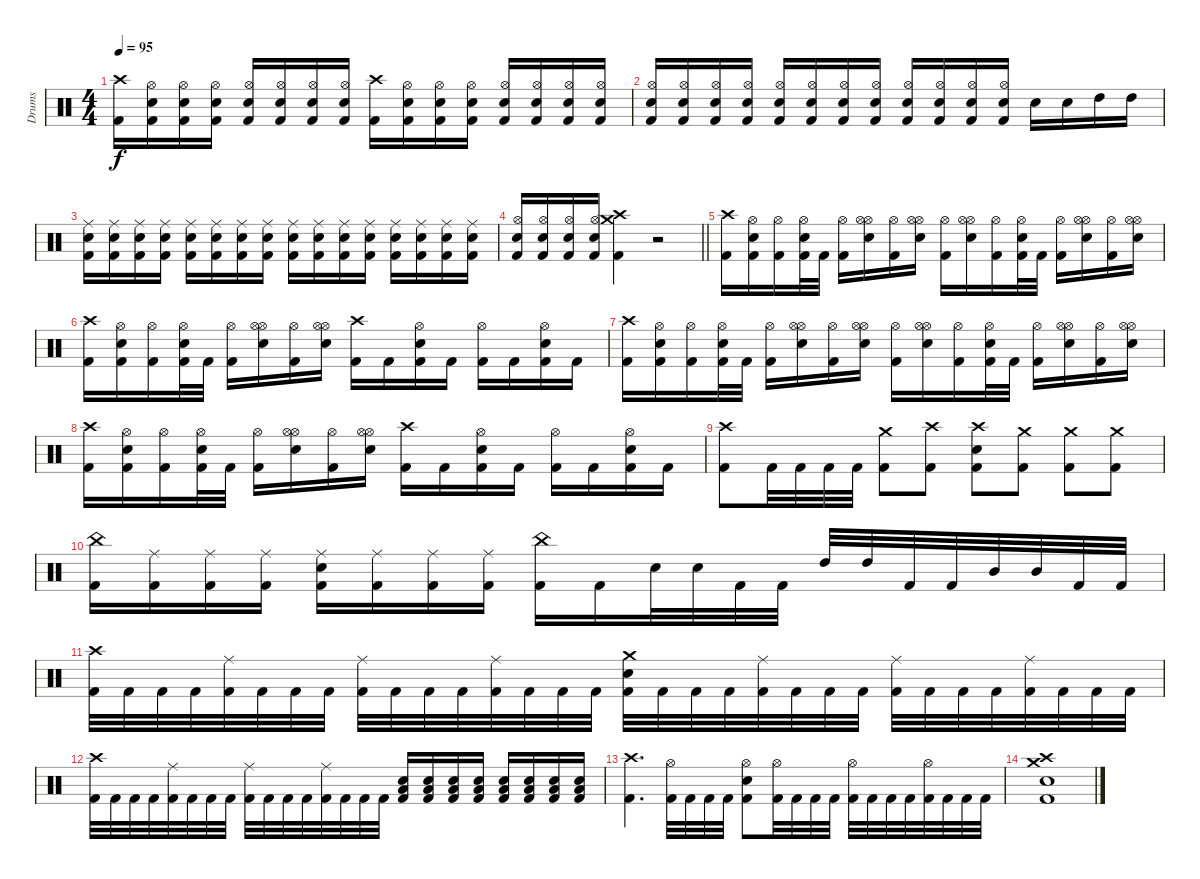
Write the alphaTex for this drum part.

\track ("Drums" "Drums") {instrument percussion}
\staff {score}
\articulation defaults
\ts (4 4)
\tempo 95
\clef neutral
\ks c
("Crash high (hit)" "Kick (hit) 2").16{dy f} ("Hi-Hat (open)" "Electric Snare (hit)" "Kick (hit) 2").16 ("Hi-Hat (open)" "Electric Snare (hit)" "Kick (hit) 2").16 ("Hi-Hat (open)" "Electric Snare (hit)" "Kick (hit) 2").16 ("Hi-Hat (open)" "Electric Snare (hit)" "Kick (hit) 2").16 ("Hi-Hat (open)" "Electric Snare (hit)" "Kick (hit) 2").16 ("Hi-Hat (open)" "Electric Snare (hit)" "Kick (hit) 2").16 ("Hi-Hat (open)" "Electric Snare (hit)" "Kick (hit) 2").16 ("Crash high (hit)" "Kick (hit) 2").16 ("Hi-Hat (open)" "Electric Snare (hit)" "Kick (hit) 2").16 ("Hi-Hat (open)" "Electric Snare (hit)" "Kick (hit) 2").16 ("Hi-Hat (open)" "Electric Snare (hit)" "Kick (hit) 2").16 ("Hi-Hat (open)" "Electric Snare (hit)" "Kick (hit) 2").16 ("Hi-Hat (open)" "Electric Snare (hit)" "Kick (hit) 2").16 ("Hi-Hat (open)" "Electric Snare (hit)" "Kick (hit) 2").16 ("Hi-Hat (open)" "Electric Snare (hit)" "Kick (hit) 2").16 |
("Hi-Hat (open)" "Electric Snare (hit)" "Kick (hit) 2").16 ("Hi-Hat (open)" "Electric Snare (hit)" "Kick (hit) 2").16 ("Hi-Hat (open)" "Electric Snare (hit)" "Kick (hit) 2").16 ("Hi-Hat (open)" "Electric Snare (hit)" "Kick (hit) 2").16 ("Hi-Hat (open)" "Electric Snare (hit)" "Kick (hit) 2").16 ("Hi-Hat (open)" "Electric Snare (hit)" "Kick (hit) 2").16 ("Hi-Hat (open)" "Electric Snare (hit)" "Kick (hit) 2").16 ("Hi-Hat (open)" "Electric Snare (hit)" "Kick (hit) 2").16 ("Hi-Hat (open)" "Electric Snare (hit)" "Kick (hit) 2").16 ("Hi-Hat (open)" "Electric Snare (hit)" "Kick (hit) 2").16 ("Hi-Hat (open)" "Electric Snare (hit)" "Kick (hit) 2").16 ("Hi-Hat (open)" "Electric Snare (hit)" "Kick (hit) 2").16 "Electric Snare (hit)".16 "Electric Snare (hit)".16 "High Tom (hit)".16 "High Tom (hit)".16 |
("Ride (middle)" "Electric Snare (hit)" "Kick (hit) 2").16 ("Ride (middle)" "Electric Snare (hit)" "Kick (hit) 2").16 ("Ride (middle)" "Electric Snare (hit)" "Kick (hit) 2").16 ("Ride (middle)" "Electric Snare (hit)" "Kick (hit) 2").16 ("Ride (middle)" "Electric Snare (hit)" "Kick (hit) 2").16 ("Ride (middle)" "Electric Snare (hit)" "Kick (hit) 2").16 ("Ride (middle)" "Electric Snare (hit)" "Kick (hit) 2").16 ("Ride (middle)" "Electric Snare (hit)" "Kick (hit) 2").16 ("Ride (middle)" "Electric Snare (hit)" "Kick (hit) 2").16 ("Ride (middle)" "Electric Snare (hit)" "Kick (hit) 2").16 ("Ride (middle)" "Electric Snare (hit)" "Kick (hit) 2").16 ("Ride (middle)" "Electric Snare (hit)" "Kick (hit) 2").16 ("Ride (middle)" "Electric Snare (hit)" "Kick (hit) 2").16 ("Ride (middle)" "Electric Snare (hit)" "Kick (hit) 2").16 ("Ride (middle)" "Electric Snare (hit)" "Kick (hit) 2").16 ("Ride (middle)" "Electric Snare (hit)" "Kick (hit) 2").16 |
\barLineRight lightlight
("Kick (hit) 2" "Electric Snare (hit)" "Hi-Hat (open)").16 ("Kick (hit) 2" "Electric Snare (hit)" "Hi-Hat (open)").16 ("Kick (hit) 2" "Electric Snare (hit)" "Hi-Hat (open)").16 ("Kick (hit) 2" "Electric Snare (hit)" "Hi-Hat (open)").16 ("Kick (hit) 2" "Crash medium (hit)" "Crash high (hit)").4 r.2 |
("Crash high (hit)" "Kick (hit) 2").16 ("Electric Snare (hit)" "Hi-Hat (open)" "Kick (hit) 2").16 ("Hi-Hat (open)" "Kick (hit) 2").16 ("Hi-Hat (open)" "Electric Snare (hit)" "Kick (hit) 2").32 "Kick (hit) 2".32 ("Hi-Hat (open)" "Kick (hit) 2").16 ("Electric Snare (hit)" "Hi-Hat (open)" "Hi-Hat (open)").16 ("Hi-Hat (open)" "Kick (hit) 2").16 ("Electric Snare (hit)" "Hi-Hat (open)" "Hi-Hat (open)").16 ("Hi-Hat (open)" "Kick (hit) 2").16 ("Electric Snare (hit)" "Hi-Hat (open)" "Hi-Hat (open)").16 ("Hi-Hat (open)" "Kick (hit) 2").16 ("Hi-Hat (open)" "Electric Snare (hit)" "Kick (hit) 2").32 "Kick (hit) 2".32 ("Hi-Hat (open)" "Kick (hit) 2").16 ("Electric Snare (hit)" "Hi-Hat (open)" "Hi-Hat (open)").16 ("Hi-Hat (open)" "Kick (hit) 2").16 ("Electric Snare (hit)" "Hi-Hat (open)" "Hi-Hat (open)").16 |
("Crash high (hit)" "Kick (hit) 2").16 ("Electric Snare (hit)" "Hi-Hat (open)" "Kick (hit) 2").16 ("Hi-Hat (open)" "Kick (hit) 2").16 ("Hi-Hat (open)" "Electric Snare (hit)" "Kick (hit) 2").32 "Kick (hit) 2".32 ("Hi-Hat (open)" "Kick (hit) 2").16 ("Electric Snare (hit)" "Hi-Hat (open)" "Hi-Hat (open)").16 ("Hi-Hat (open)" "Kick (hit) 2").16 ("Electric Snare (hit)" "Hi-Hat (open)" "Hi-Hat (open)").16 ("Crash high (hit)" "Kick (hit) 2").16 "Kick (hit) 2".16 ("Hi-Hat (open)" "Electric Snare (hit)" "Kick (hit) 2").16 "Kick (hit) 2".16 ("Hi-Hat (open)" "Kick (hit) 2").16 "Kick (hit) 2".16 ("Electric Snare (hit)" "Hi-Hat (open)" "Kick (hit) 2").16 "Kick (hit) 2".16 |
("Crash high (hit)" "Kick (hit) 2").16 ("Electric Snare (hit)" "Hi-Hat (open)" "Kick (hit) 2").16 ("Hi-Hat (open)" "Kick (hit) 2").16 ("Hi-Hat (open)" "Electric Snare (hit)" "Kick (hit) 2").32 "Kick (hit) 2".32 ("Hi-Hat (open)" "Kick (hit) 2").16 ("Electric Snare (hit)" "Hi-Hat (open)" "Hi-Hat (open)").16 ("Hi-Hat (open)" "Kick (hit) 2").16 ("Electric Snare (hit)" "Hi-Hat (open)" "Hi-Hat (open)").16 ("Hi-Hat (open)" "Kick (hit) 2").16 ("Electric Snare (hit)" "Hi-Hat (open)" "Hi-Hat (open)").16 ("Hi-Hat (open)" "Kick (hit) 2").16 ("Hi-Hat (open)" "Electric Snare (hit)" "Kick (hit) 2").32 "Kick (hit) 2".32 ("Hi-Hat (open)" "Kick (hit) 2").16 ("Electric Snare (hit)" "Hi-Hat (open)" "Hi-Hat (open)").16 ("Hi-Hat (open)" "Kick (hit) 2").16 ("Electric Snare (hit)" "Hi-Hat (open)" "Hi-Hat (open)").16 |
("Crash high (hit)" "Kick (hit) 2").16 ("Electric Snare (hit)" "Hi-Hat (open)" "Kick (hit) 2").16 ("Hi-Hat (open)" "Kick (hit) 2").16 ("Hi-Hat (open)" "Electric Snare (hit)" "Kick (hit) 2").32 "Kick (hit) 2".32 ("Hi-Hat (open)" "Kick (hit) 2").16 ("Electric Snare (hit)" "Hi-Hat (open)" "Hi-Hat (open)").16 ("Hi-Hat (open)" "Kick (hit) 2").16 ("Electric Snare (hit)" "Hi-Hat (open)" "Hi-Hat (open)").16 ("Crash high (hit)" "Kick (hit) 2").16 "Kick (hit) 2".16 ("Hi-Hat (open)" "Electric Snare (hit)" "Kick (hit) 2").16 "Kick (hit) 2".16 ("Hi-Hat (open)" "Kick (hit) 2").16 "Kick (hit) 2".16 ("Electric Snare (hit)" "Hi-Hat (open)" "Kick (hit) 2").16 "Kick (hit) 2".16 |
("Crash high (hit)" "Kick (hit) 2").8 "Kick (hit) 2".32 "Kick (hit) 2".32 "Kick (hit) 2".32 "Kick (hit) 2".32 ("Crash medium (hit)" "Kick (hit) 2").8 ("Crash high (hit)" "Kick (hit) 2").8 ("Crash high (hit)" "Electric Snare (hit)" "Kick (hit) 2").8 ("Crash medium (hit)" "Kick (hit) 2").8 ("Crash medium (hit)" "Kick (hit) 2").8 ("Crash medium (hit)" "Kick (hit) 2").8 |
("China (hit)" "Kick (hit) 2").16 ("Ride (middle)" "Kick (hit) 2").16 ("Ride (middle)" "Kick (hit) 2").16 ("Ride (middle)" "Kick (hit) 2").16 ("Ride (middle)" "Electric Snare (hit)" "Kick (hit) 2").16 ("Ride (middle)" "Kick (hit) 2").16 ("Ride (middle)" "Kick (hit) 2").16 ("Ride (middle)" "Kick (hit) 2").16 ("China (hit)" "Kick (hit) 2").16 "Kick (hit) 2".16 "Electric Snare (hit)".32 "Electric Snare (hit)".32 "Kick (hit) 2".32 "Kick (hit) 2".32 "High Tom (hit)".32 "High Tom (hit)".32 "Kick (hit) 2".32 "Kick (hit) 2".32 "Mid Tom (hit)".32 "Mid Tom (hit)".32 "Kick (hit) 2".32 "Kick (hit) 2".32 |
("Crash high (hit)" "Kick (hit) 2").32 "Kick (hit) 2".32 "Kick (hit) 2".32 "Kick (hit) 2".32 ("Ride (middle)" "Kick (hit) 2").32 "Kick (hit) 2".32 "Kick (hit) 2".32 "Kick (hit) 2".32 ("Ride (middle)" "Kick (hit) 2").32 "Kick (hit) 2".32 "Kick (hit) 2".32 "Kick (hit) 2".32 ("Ride (middle)" "Kick (hit) 2").32 "Kick (hit) 2".32 "Kick (hit) 2".32 "Kick (hit) 2".32 ("Crash medium (hit)" "Electric Snare (hit)" "Kick (hit) 2").32 "Kick (hit) 2".32 "Kick (hit) 2".32 "Kick (hit) 2".32 ("Ride (middle)" "Kick (hit) 2").32 "Kick (hit) 2".32 "Kick (hit) 2".32 "Kick (hit) 2".32 ("Ride (middle)" "Kick (hit) 2").32 "Kick (hit) 2".32 "Kick (hit) 2".32 "Kick (hit) 2".32 ("Ride (middle)" "Kick (hit) 2").32 "Kick (hit) 2".32 "Kick (hit) 2".32 "Kick (hit) 2".32 |
("Crash high (hit)" "Kick (hit) 2").32 "Kick (hit) 2".32 "Kick (hit) 2".32 "Kick (hit) 2".32 ("Ride (middle)" "Kick (hit) 2").32 "Kick (hit) 2".32 "Kick (hit) 2".32 "Kick (hit) 2".32 ("Ride (middle)" "Kick (hit) 2").32 "Kick (hit) 2".32 "Kick (hit) 2".32 "Kick (hit) 2".32 ("Ride (middle)" "Kick (hit) 2").32 "Kick (hit) 2".32 "Kick (hit) 2".32 "Kick (hit) 2".32 ("Low Floor Tom (hit)" "Electric Snare (hit)" "Kick (hit) 2").16 ("Low Floor Tom (hit)" "Electric Snare (hit)" "Kick (hit) 2").16 ("Low Floor Tom (hit)" "Electric Snare (hit)" "Kick (hit) 2").16 ("Low Floor Tom (hit)" "Electric Snare (hit)" "Kick (hit) 2").16 ("Low Floor Tom (hit)" "Electric Snare (hit)" "Kick (hit) 2").16 ("Low Floor Tom (hit)" "Electric Snare (hit)" "Kick (hit) 2").16 ("Low Floor Tom (hit)" "Electric Snare (hit)" "Kick (hit) 2").16 ("Low Floor Tom (hit)" "Electric Snare (hit)" "Kick (hit) 2").16 |
("Crash high (hit)" "Kick (hit) 2").4{d} ("Hi-Hat (open)" "Kick (hit) 2").32 "Kick (hit) 2".32 "Kick (hit) 2".32 "Kick (hit) 2".32 ("Hi-Hat (open)" "Electric Snare (hit)" "Kick (hit) 2").8 ("Hi-Hat (open)" "Kick (hit) 2").32 "Kick (hit) 2".32 "Kick (hit) 2".32 "Kick (hit) 2".32 ("Hi-Hat (open)" "Kick (hit) 2").32 "Kick (hit) 2".32 "Kick (hit) 2".32 "Kick (hit) 2".32 ("Hi-Hat (open)" "Kick (hit) 2").32 "Kick (hit) 2".32 "Kick (hit) 2".32 "Kick (hit) 2".32 |
("Crash medium (hit)" "Crash high (hit)" "Electric Snare (hit)" "Kick (hit) 2").1
